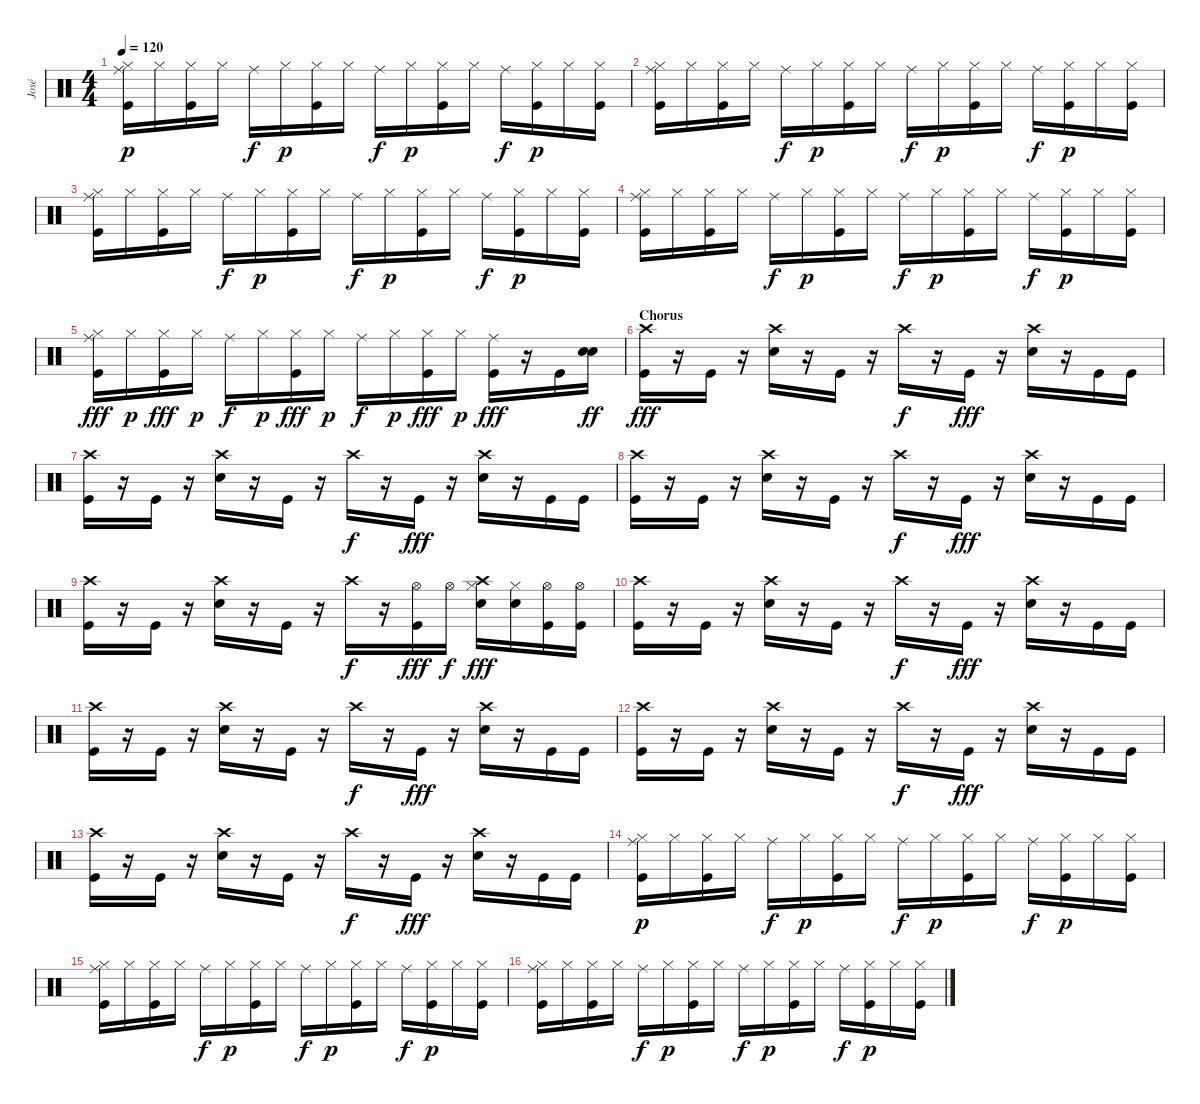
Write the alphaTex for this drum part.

\track ("José" "José") {instrument percussion}
\staff {score}
\articulation defaults
\ts (4 4)
\tempo 120
\clef neutral
\ks c
("Ride (middle)" "Hi-Hat (closed)" "Kick (hit)").16{dy p} "Hi-Hat (closed)".16 ("Hi-Hat (closed)" "Kick (hit)").16 "Hi-Hat (closed)".16 "Ride (middle)".16{dy f} "Hi-Hat (closed)".16{dy p} ("Hi-Hat (closed)" "Kick (hit)").16 "Hi-Hat (closed)".16 "Ride (middle)".16{dy f} "Hi-Hat (closed)".16{dy p} ("Hi-Hat (closed)" "Kick (hit)").16 "Hi-Hat (closed)".16 "Ride (middle)".16{dy f} ("Hi-Hat (closed)" "Kick (hit)").16{dy p} "Hi-Hat (closed)".16 ("Hi-Hat (closed)" "Kick (hit)").16 |
("Ride (middle)" "Hi-Hat (closed)" "Kick (hit)").16 "Hi-Hat (closed)".16 ("Hi-Hat (closed)" "Kick (hit)").16 "Hi-Hat (closed)".16 "Ride (middle)".16{dy f} "Hi-Hat (closed)".16{dy p} ("Hi-Hat (closed)" "Kick (hit)").16 "Hi-Hat (closed)".16 "Ride (middle)".16{dy f} "Hi-Hat (closed)".16{dy p} ("Hi-Hat (closed)" "Kick (hit)").16 "Hi-Hat (closed)".16 "Ride (middle)".16{dy f} ("Hi-Hat (closed)" "Kick (hit)").16{dy p} "Hi-Hat (closed)".16 ("Hi-Hat (closed)" "Kick (hit)").16 |
("Ride (middle)" "Hi-Hat (closed)" "Kick (hit)").16 "Hi-Hat (closed)".16 ("Hi-Hat (closed)" "Kick (hit)").16 "Hi-Hat (closed)".16 "Ride (middle)".16{dy f} "Hi-Hat (closed)".16{dy p} ("Hi-Hat (closed)" "Kick (hit)").16 "Hi-Hat (closed)".16 "Ride (middle)".16{dy f} "Hi-Hat (closed)".16{dy p} ("Hi-Hat (closed)" "Kick (hit)").16 "Hi-Hat (closed)".16 "Ride (middle)".16{dy f} ("Hi-Hat (closed)" "Kick (hit)").16{dy p} "Hi-Hat (closed)".16 ("Hi-Hat (closed)" "Kick (hit)").16 |
("Ride (middle)" "Hi-Hat (closed)" "Kick (hit)").16 "Hi-Hat (closed)".16 ("Hi-Hat (closed)" "Kick (hit)").16 "Hi-Hat (closed)".16 "Ride (middle)".16{dy f} "Hi-Hat (closed)".16{dy p} ("Hi-Hat (closed)" "Kick (hit)").16 "Hi-Hat (closed)".16 "Ride (middle)".16{dy f} "Hi-Hat (closed)".16{dy p} ("Hi-Hat (closed)" "Kick (hit)").16 "Hi-Hat (closed)".16 "Ride (middle)".16{dy f} ("Hi-Hat (closed)" "Kick (hit)").16{dy p} "Hi-Hat (closed)".16 ("Hi-Hat (closed)" "Kick (hit)").16 |
("Ride (middle)" "Hi-Hat (closed)" "Kick (hit)").16{dy fff} "Hi-Hat (closed)".16{dy p} ("Hi-Hat (closed)" "Kick (hit)").16{dy fff} "Hi-Hat (closed)".16{dy p} "Ride (middle)".16{dy f} "Hi-Hat (closed)".16{dy p} ("Hi-Hat (closed)" "Kick (hit)").16{dy fff} "Hi-Hat (closed)".16{dy p} "Ride (middle)".16{dy f} "Hi-Hat (closed)".16{dy p} ("Hi-Hat (closed)" "Kick (hit)").16{dy fff} "Hi-Hat (closed)".16{dy p} ("Ride (middle)" "Kick (hit)").16{dy fff} r.16 "Kick (hit)".16 ("Electric Snare (hit)" "Electric Snare (hit)").16{dy ff} |
\section ("" "Chorus")
("Crash high (hit)" "Kick (hit)").16{dy fff} r.16 "Kick (hit)".16 r.16 ("Crash high (hit)" "Electric Snare (hit)").16 r.16 "Kick (hit)".16 r.16 "Crash high (hit)".16{dy f} r.16 "Kick (hit)".16{dy fff} r.16 ("Crash high (hit)" "Electric Snare (hit)").16 r.16 "Kick (hit)".16 "Kick (hit)".16 |
("Crash high (hit)" "Kick (hit)").16 r.16 "Kick (hit)".16 r.16 ("Crash high (hit)" "Electric Snare (hit)").16 r.16 "Kick (hit)".16 r.16 "Crash high (hit)".16{dy f} r.16 "Kick (hit)".16{dy fff} r.16 ("Crash high (hit)" "Electric Snare (hit)").16 r.16 "Kick (hit)".16 "Kick (hit)".16 |
("Crash high (hit)" "Kick (hit)").16 r.16 "Kick (hit)".16 r.16 ("Crash high (hit)" "Electric Snare (hit)").16 r.16 "Kick (hit)".16 r.16 "Crash high (hit)".16{dy f} r.16 "Kick (hit)".16{dy fff} r.16 ("Crash high (hit)" "Electric Snare (hit)").16 r.16 "Kick (hit)".16 "Kick (hit)".16 |
("Crash high (hit)" "Kick (hit)").16 r.16 "Kick (hit)".16 r.16 ("Crash high (hit)" "Electric Snare (hit)").16 r.16 "Kick (hit)".16 r.16 "Crash high (hit)".16{dy f} r.16 ("Hi-Hat (open)" "Kick (hit)").16{dy fff} "Hi-Hat (open)".16{dy f} ("Crash high (hit)" "Hi-Hat (closed)" "Electric Snare (hit)").16{dy fff} ("Hi-Hat (closed)" "Electric Snare (hit)").16 ("Hi-Hat (open)" "Kick (hit)").16 ("Hi-Hat (open)" "Kick (hit)").16 |
("Crash high (hit)" "Kick (hit)").16 r.16 "Kick (hit)".16 r.16 ("Crash high (hit)" "Electric Snare (hit)").16 r.16 "Kick (hit)".16 r.16 "Crash high (hit)".16{dy f} r.16 "Kick (hit)".16{dy fff} r.16 ("Crash high (hit)" "Electric Snare (hit)").16 r.16 "Kick (hit)".16 "Kick (hit)".16 |
("Crash high (hit)" "Kick (hit)").16 r.16 "Kick (hit)".16 r.16 ("Crash high (hit)" "Electric Snare (hit)").16 r.16 "Kick (hit)".16 r.16 "Crash high (hit)".16{dy f} r.16 "Kick (hit)".16{dy fff} r.16 ("Crash high (hit)" "Electric Snare (hit)").16 r.16 "Kick (hit)".16 "Kick (hit)".16 |
("Crash high (hit)" "Kick (hit)").16 r.16 "Kick (hit)".16 r.16 ("Crash high (hit)" "Electric Snare (hit)").16 r.16 "Kick (hit)".16 r.16 "Crash high (hit)".16{dy f} r.16 "Kick (hit)".16{dy fff} r.16 ("Crash high (hit)" "Electric Snare (hit)").16 r.16 "Kick (hit)".16 "Kick (hit)".16 |
("Crash high (hit)" "Kick (hit)").16 r.16 "Kick (hit)".16 r.16 ("Crash high (hit)" "Electric Snare (hit)").16 r.16 "Kick (hit)".16 r.16 "Crash high (hit)".16{dy f} r.16 "Kick (hit)".16{dy fff} r.16 ("Crash high (hit)" "Electric Snare (hit)").16 r.16 "Kick (hit)".16 "Kick (hit)".16 |
("Ride (middle)" "Hi-Hat (closed)" "Kick (hit)").16{dy p} "Hi-Hat (closed)".16 ("Hi-Hat (closed)" "Kick (hit)").16 "Hi-Hat (closed)".16 "Ride (middle)".16{dy f} "Hi-Hat (closed)".16{dy p} ("Hi-Hat (closed)" "Kick (hit)").16 "Hi-Hat (closed)".16 "Ride (middle)".16{dy f} "Hi-Hat (closed)".16{dy p} ("Hi-Hat (closed)" "Kick (hit)").16 "Hi-Hat (closed)".16 "Ride (middle)".16{dy f} ("Hi-Hat (closed)" "Kick (hit)").16{dy p} "Hi-Hat (closed)".16 ("Hi-Hat (closed)" "Kick (hit)").16 |
("Ride (middle)" "Hi-Hat (closed)" "Kick (hit)").16 "Hi-Hat (closed)".16 ("Hi-Hat (closed)" "Kick (hit)").16 "Hi-Hat (closed)".16 "Ride (middle)".16{dy f} "Hi-Hat (closed)".16{dy p} ("Hi-Hat (closed)" "Kick (hit)").16 "Hi-Hat (closed)".16 "Ride (middle)".16{dy f} "Hi-Hat (closed)".16{dy p} ("Hi-Hat (closed)" "Kick (hit)").16 "Hi-Hat (closed)".16 "Ride (middle)".16{dy f} ("Hi-Hat (closed)" "Kick (hit)").16{dy p} "Hi-Hat (closed)".16 ("Hi-Hat (closed)" "Kick (hit)").16 |
("Ride (middle)" "Hi-Hat (closed)" "Kick (hit)").16 "Hi-Hat (closed)".16 ("Hi-Hat (closed)" "Kick (hit)").16 "Hi-Hat (closed)".16 "Ride (middle)".16{dy f} "Hi-Hat (closed)".16{dy p} ("Hi-Hat (closed)" "Kick (hit)").16 "Hi-Hat (closed)".16 "Ride (middle)".16{dy f} "Hi-Hat (closed)".16{dy p} ("Hi-Hat (closed)" "Kick (hit)").16 "Hi-Hat (closed)".16 "Ride (middle)".16{dy f} ("Hi-Hat (closed)" "Kick (hit)").16{dy p} "Hi-Hat (closed)".16 ("Hi-Hat (closed)" "Kick (hit)").16
